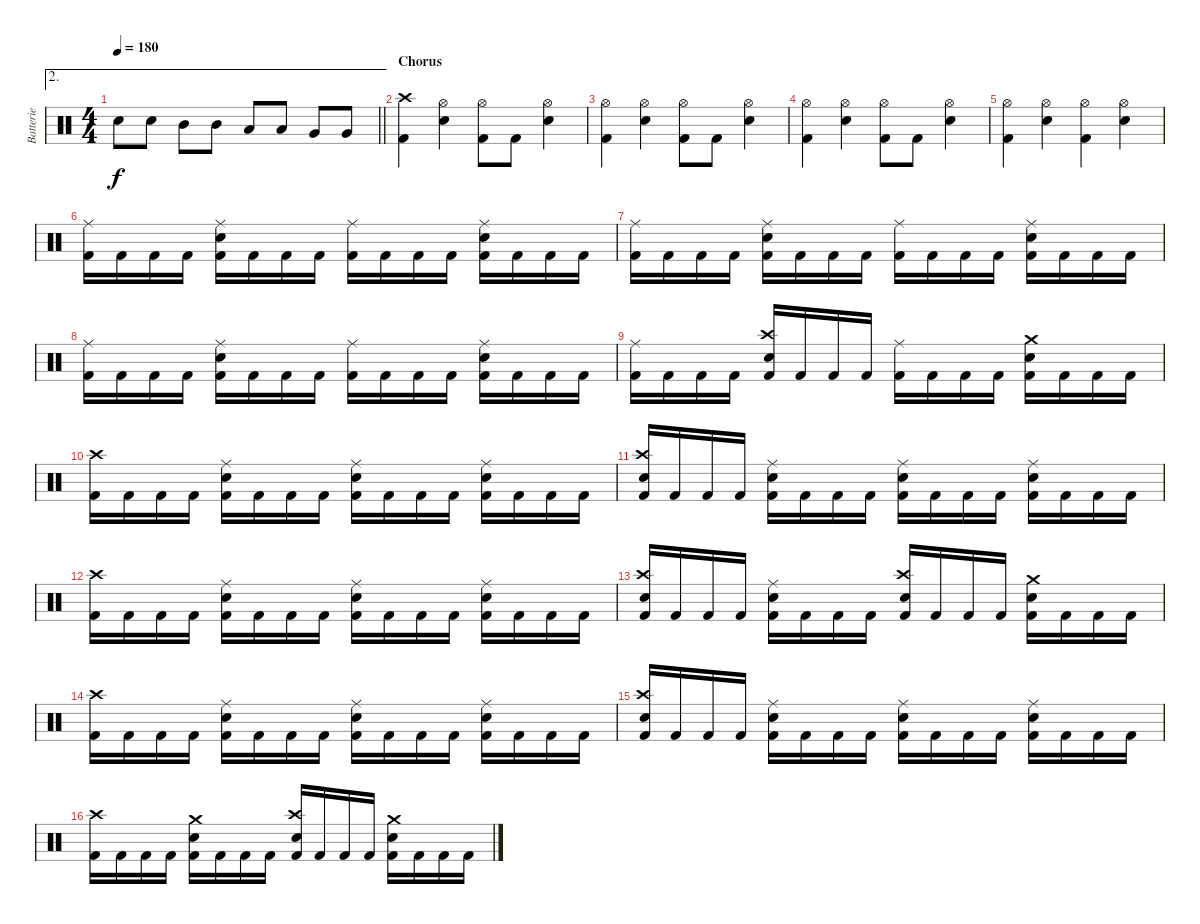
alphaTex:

\track ("Batterie" "Batterie") {instrument percussion}
\staff {score}
\articulation defaults
\ae 2
\ts (4 4)
\tempo 180
\clef neutral
\barLineRight lightlight
\ks c "Electric Snare (hit)".8{dy f} "Electric Snare (hit)".8 "Mid Tom (hit)".8 "Mid Tom (hit)".8 "Low Tom (hit)".8 "Low Tom (hit)".8 "Very Low Tom (hit)".8 "Very Low Tom (hit)".8
|
\section ("" "Chorus")
("Crash high (hit)" "Kick (hit) 2").4 ("Hi-Hat (open)" "Electric Snare (hit)").4 ("Hi-Hat (open)" "Kick (hit) 2").8 "Kick (hit) 2".8 ("Hi-Hat (open)" "Electric Snare (hit)").4 |
("Hi-Hat (open)" "Kick (hit) 2").4 ("Hi-Hat (open)" "Electric Snare (hit)").4 ("Hi-Hat (open)" "Kick (hit) 2").8 "Kick (hit) 2".8 ("Hi-Hat (open)" "Electric Snare (hit)").4 |
("Hi-Hat (open)" "Kick (hit) 2").4 ("Hi-Hat (open)" "Electric Snare (hit)").4 ("Hi-Hat (open)" "Kick (hit) 2").8 "Kick (hit) 2".8 ("Hi-Hat (open)" "Electric Snare (hit)").4 |
("Hi-Hat (open)" "Kick (hit) 2").4 ("Hi-Hat (open)" "Electric Snare (hit)").4 ("Hi-Hat (open)" "Kick (hit) 2").4 ("Hi-Hat (open)" "Electric Snare (hit)").4 |
("Ride (middle)" "Kick (hit) 2").16 "Kick (hit) 2".16 "Kick (hit) 2".16 "Kick (hit) 2".16 ("Ride (middle)" "Electric Snare (hit)" "Kick (hit) 2").16 "Kick (hit) 2".16 "Kick (hit) 2".16 "Kick (hit) 2".16 ("Ride (middle)" "Kick (hit) 2").16 "Kick (hit) 2".16 "Kick (hit) 2".16 "Kick (hit) 2".16 ("Ride (middle)" "Electric Snare (hit)" "Kick (hit) 2").16 "Kick (hit) 2".16 "Kick (hit) 2".16 "Kick (hit) 2".16 |
("Ride (middle)" "Kick (hit) 2").16 "Kick (hit) 2".16 "Kick (hit) 2".16 "Kick (hit) 2".16 ("Ride (middle)" "Electric Snare (hit)" "Kick (hit) 2").16 "Kick (hit) 2".16 "Kick (hit) 2".16 "Kick (hit) 2".16 ("Ride (middle)" "Kick (hit) 2").16 "Kick (hit) 2".16 "Kick (hit) 2".16 "Kick (hit) 2".16 ("Ride (middle)" "Electric Snare (hit)" "Kick (hit) 2").16 "Kick (hit) 2".16 "Kick (hit) 2".16 "Kick (hit) 2".16 |
("Ride (middle)" "Kick (hit) 2").16 "Kick (hit) 2".16 "Kick (hit) 2".16 "Kick (hit) 2".16 ("Ride (middle)" "Electric Snare (hit)" "Kick (hit) 2").16 "Kick (hit) 2".16 "Kick (hit) 2".16 "Kick (hit) 2".16 ("Ride (middle)" "Kick (hit) 2").16 "Kick (hit) 2".16 "Kick (hit) 2".16 "Kick (hit) 2".16 ("Ride (middle)" "Electric Snare (hit)" "Kick (hit) 2").16 "Kick (hit) 2".16 "Kick (hit) 2".16 "Kick (hit) 2".16 |
("Ride (middle)" "Kick (hit) 2").16 "Kick (hit) 2".16 "Kick (hit) 2".16 "Kick (hit) 2".16 ("Crash high (hit)" "Electric Snare (hit)" "Kick (hit) 2").16 "Kick (hit) 2".16 "Kick (hit) 2".16 "Kick (hit) 2".16 ("Ride (middle)" "Kick (hit) 2").16 "Kick (hit) 2".16 "Kick (hit) 2".16 "Kick (hit) 2".16 ("Crash medium (hit)" "Electric Snare (hit)" "Kick (hit) 2").16 "Kick (hit) 2".16 "Kick (hit) 2".16 "Kick (hit) 2".16 |
("Crash high (hit)" "Kick (hit) 2").16 "Kick (hit) 2".16 "Kick (hit) 2".16 "Kick (hit) 2".16 ("Ride (middle)" "Electric Snare (hit)" "Kick (hit) 2").16 "Kick (hit) 2".16 "Kick (hit) 2".16 "Kick (hit) 2".16 ("Ride (middle)" "Electric Snare (hit)" "Kick (hit) 2").16 "Kick (hit) 2".16 "Kick (hit) 2".16 "Kick (hit) 2".16 ("Ride (middle)" "Electric Snare (hit)" "Kick (hit) 2").16 "Kick (hit) 2".16 "Kick (hit) 2".16 "Kick (hit) 2".16 |
("Crash high (hit)" "Electric Snare (hit)" "Kick (hit) 2").16 "Kick (hit) 2".16 "Kick (hit) 2".16 "Kick (hit) 2".16 ("Ride (middle)" "Electric Snare (hit)" "Kick (hit) 2").16 "Kick (hit) 2".16 "Kick (hit) 2".16 "Kick (hit) 2".16 ("Ride (middle)" "Electric Snare (hit)" "Kick (hit) 2").16 "Kick (hit) 2".16 "Kick (hit) 2".16 "Kick (hit) 2".16 ("Ride (middle)" "Electric Snare (hit)" "Kick (hit) 2").16 "Kick (hit) 2".16 "Kick (hit) 2".16 "Kick (hit) 2".16 |
("Crash high (hit)" "Kick (hit) 2").16 "Kick (hit) 2".16 "Kick (hit) 2".16 "Kick (hit) 2".16 ("Ride (middle)" "Electric Snare (hit)" "Kick (hit) 2").16 "Kick (hit) 2".16 "Kick (hit) 2".16 "Kick (hit) 2".16 ("Ride (middle)" "Electric Snare (hit)" "Kick (hit) 2").16 "Kick (hit) 2".16 "Kick (hit) 2".16 "Kick (hit) 2".16 ("Ride (middle)" "Electric Snare (hit)" "Kick (hit) 2").16 "Kick (hit) 2".16 "Kick (hit) 2".16 "Kick (hit) 2".16 |
("Crash high (hit)" "Electric Snare (hit)" "Kick (hit) 2").16 "Kick (hit) 2".16 "Kick (hit) 2".16 "Kick (hit) 2".16 ("Ride (middle)" "Electric Snare (hit)" "Kick (hit) 2").16 "Kick (hit) 2".16 "Kick (hit) 2".16 "Kick (hit) 2".16 ("Crash high (hit)" "Electric Snare (hit)" "Kick (hit) 2").16 "Kick (hit) 2".16 "Kick (hit) 2".16 "Kick (hit) 2".16 ("Crash medium (hit)" "Electric Snare (hit)" "Kick (hit) 2").16 "Kick (hit) 2".16 "Kick (hit) 2".16 "Kick (hit) 2".16 |
("Crash high (hit)" "Kick (hit) 2").16 "Kick (hit) 2".16 "Kick (hit) 2".16 "Kick (hit) 2".16 ("Ride (middle)" "Electric Snare (hit)" "Kick (hit) 2").16 "Kick (hit) 2".16 "Kick (hit) 2".16 "Kick (hit) 2".16 ("Ride (middle)" "Electric Snare (hit)" "Kick (hit) 2").16 "Kick (hit) 2".16 "Kick (hit) 2".16 "Kick (hit) 2".16 ("Ride (middle)" "Electric Snare (hit)" "Kick (hit) 2").16 "Kick (hit) 2".16 "Kick (hit) 2".16 "Kick (hit) 2".16 |
("Crash high (hit)" "Electric Snare (hit)" "Kick (hit) 2").16 "Kick (hit) 2".16 "Kick (hit) 2".16 "Kick (hit) 2".16 ("Ride (middle)" "Electric Snare (hit)" "Kick (hit) 2").16 "Kick (hit) 2".16 "Kick (hit) 2".16 "Kick (hit) 2".16 ("Ride (middle)" "Electric Snare (hit)" "Kick (hit) 2").16 "Kick (hit) 2".16 "Kick (hit) 2".16 "Kick (hit) 2".16 ("Ride (middle)" "Electric Snare (hit)" "Kick (hit) 2").16 "Kick (hit) 2".16 "Kick (hit) 2".16 "Kick (hit) 2".16 |
("Crash high (hit)" "Kick (hit) 2").16 "Kick (hit) 2".16 "Kick (hit) 2".16 "Kick (hit) 2".16 ("Crash medium (hit)" "Electric Snare (hit)" "Kick (hit) 2").16 "Kick (hit) 2".16 "Kick (hit) 2".16 "Kick (hit) 2".16 ("Crash high (hit)" "Electric Snare (hit)" "Kick (hit) 2").16 "Kick (hit) 2".16 "Kick (hit) 2".16 "Kick (hit) 2".16 ("Crash medium (hit)" "Electric Snare (hit)" "Kick (hit) 2").16 "Kick (hit) 2".16 "Kick (hit) 2".16 "Kick (hit) 2".16
